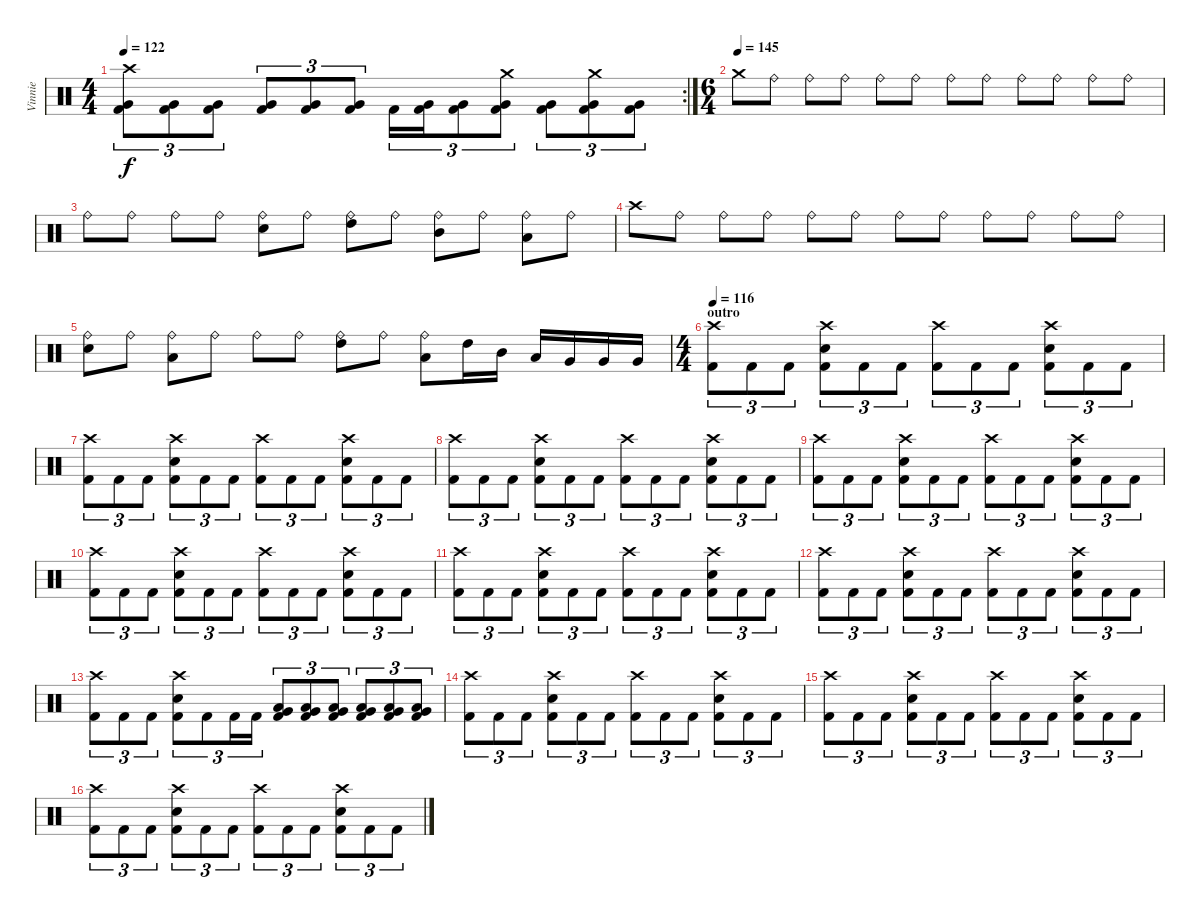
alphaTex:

\track ("Vinnie" "Vinnie") {instrument percussion}
\staff {score}
\articulation defaults
\rc 2
\ts (4 4)
\tempo 122
\clef neutral
\ks c
("Crash high (hit)" "Very Low Tom (hit)" "Kick (hit) 2").8{tu (3 2) dy f} ("Very Low Tom (hit)" "Kick (hit) 2").8{tu (3 2)} ("Very Low Tom (hit)" "Kick (hit) 2").8{tu (3 2)} ("Very Low Tom (hit)" "Kick (hit) 2").8{tu (3 2)} ("Very Low Tom (hit)" "Kick (hit) 2").8{tu (3 2)} ("Very Low Tom (hit)" "Kick (hit) 2").8{tu (3 2)} "Kick (hit) 2".16{tu (3 2)} ("Very Low Tom (hit)" "Kick (hit) 2").16{tu (3 2)} ("Very Low Tom (hit)" "Kick (hit) 2").8{tu (3 2)} ("Crash medium (hit)" "Very Low Tom (hit)" "Kick (hit) 2").8{tu (3 2)} ("Very Low Tom (hit)" "Kick (hit) 2").8{tu (3 2)} ("Crash medium (hit)" "Very Low Tom (hit)" "Kick (hit) 2").8{tu (3 2)} ("Very Low Tom (hit)" "Kick (hit) 2").8{tu (3 2)} |
\ts (6 4)
\tempo (145)
"Crash medium (hit)".8 "Ride (bell)".8 "Ride (bell)".8 "Ride (bell)".8 "Ride (bell)".8 "Ride (bell)".8 "Ride (bell)".8 "Ride (bell)".8 "Ride (bell)".8 "Ride (bell)".8 "Ride (bell)".8 "Ride (bell)".8 |
"Ride (bell)".8 "Ride (bell)".8 "Ride (bell)".8 "Ride (bell)".8 ("Ride (bell)" "Snare (hit) 2").8 "Ride (bell)".8 ("Ride (bell)" "High Tom (hit)").8 "Ride (bell)".8 ("Ride (bell)" "Mid Tom (hit)").8 "Ride (bell)".8 ("Ride (bell)" "Low Tom (hit)").8 "Ride (bell)".8 |
"Crash high (hit)".8 "Ride (bell)".8 "Ride (bell)".8 "Ride (bell)".8 "Ride (bell)".8 "Ride (bell)".8 "Ride (bell)".8 "Ride (bell)".8 "Ride (bell)".8 "Ride (bell)".8 "Ride (bell)".8 "Ride (bell)".8 |
("Ride (bell)" "Snare (hit) 2").8 "Ride (bell)".8 ("Ride (bell)" "Low Tom (hit)").8 "Ride (bell)".8 "Ride (bell)".8 "Ride (bell)".8 ("Ride (bell)" "High Tom (hit)").8 "Ride (bell)".8 ("Ride (bell)" "Low Tom (hit)").8 "High Tom (hit)".16 "Mid Tom (hit)".16 "Low Tom (hit)".16 "Very Low Tom (hit)".16 "Very Low Tom (hit)".16 "Very Low Tom (hit)".16 |
\ts (4 4)
\section ("" "outro")
\tempo 116
("Crash high (hit)" "Kick (hit) 2").8{tu (3 2)} "Kick (hit) 2".8{tu (3 2)} "Kick (hit) 2".8{tu (3 2)} ("Crash high (hit)" "Snare (hit) 2" "Kick (hit) 2").8{tu (3 2)} "Kick (hit) 2".8{tu (3 2)} "Kick (hit) 2".8{tu (3 2)} ("Crash high (hit)" "Kick (hit) 2").8{tu (3 2)} "Kick (hit) 2".8{tu (3 2)} "Kick (hit) 2".8{tu (3 2)} ("Crash high (hit)" "Snare (hit) 2" "Kick (hit) 2").8{tu (3 2)} "Kick (hit) 2".8{tu (3 2)} "Kick (hit) 2".8{tu (3 2)} |
("Crash high (hit)" "Kick (hit) 2").8{tu (3 2)} "Kick (hit) 2".8{tu (3 2)} "Kick (hit) 2".8{tu (3 2)} ("Crash high (hit)" "Snare (hit) 2" "Kick (hit) 2").8{tu (3 2)} "Kick (hit) 2".8{tu (3 2)} "Kick (hit) 2".8{tu (3 2)} ("Crash high (hit)" "Kick (hit) 2").8{tu (3 2)} "Kick (hit) 2".8{tu (3 2)} "Kick (hit) 2".8{tu (3 2)} ("Crash high (hit)" "Snare (hit) 2" "Kick (hit) 2").8{tu (3 2)} "Kick (hit) 2".8{tu (3 2)} "Kick (hit) 2".8{tu (3 2)} |
("Crash high (hit)" "Kick (hit) 2").8{tu (3 2)} "Kick (hit) 2".8{tu (3 2)} "Kick (hit) 2".8{tu (3 2)} ("Crash high (hit)" "Snare (hit) 2" "Kick (hit) 2").8{tu (3 2)} "Kick (hit) 2".8{tu (3 2)} "Kick (hit) 2".8{tu (3 2)} ("Crash high (hit)" "Kick (hit) 2").8{tu (3 2)} "Kick (hit) 2".8{tu (3 2)} "Kick (hit) 2".8{tu (3 2)} ("Crash high (hit)" "Snare (hit) 2" "Kick (hit) 2").8{tu (3 2)} "Kick (hit) 2".8{tu (3 2)} "Kick (hit) 2".8{tu (3 2)} |
("Crash high (hit)" "Kick (hit) 2").8{tu (3 2)} "Kick (hit) 2".8{tu (3 2)} "Kick (hit) 2".8{tu (3 2)} ("Crash high (hit)" "Snare (hit) 2" "Kick (hit) 2").8{tu (3 2)} "Kick (hit) 2".8{tu (3 2)} "Kick (hit) 2".8{tu (3 2)} ("Crash high (hit)" "Kick (hit) 2").8{tu (3 2)} "Kick (hit) 2".8{tu (3 2)} "Kick (hit) 2".8{tu (3 2)} ("Crash high (hit)" "Snare (hit) 2" "Kick (hit) 2").8{tu (3 2)} "Kick (hit) 2".8{tu (3 2)} "Kick (hit) 2".8{tu (3 2)} |
("Crash high (hit)" "Kick (hit) 2").8{tu (3 2)} "Kick (hit) 2".8{tu (3 2)} "Kick (hit) 2".8{tu (3 2)} ("Crash high (hit)" "Snare (hit) 2" "Kick (hit) 2").8{tu (3 2)} "Kick (hit) 2".8{tu (3 2)} "Kick (hit) 2".8{tu (3 2)} ("Crash high (hit)" "Kick (hit) 2").8{tu (3 2)} "Kick (hit) 2".8{tu (3 2)} "Kick (hit) 2".8{tu (3 2)} ("Crash high (hit)" "Snare (hit) 2" "Kick (hit) 2").8{tu (3 2)} "Kick (hit) 2".8{tu (3 2)} "Kick (hit) 2".8{tu (3 2)} |
("Crash high (hit)" "Kick (hit) 2").8{tu (3 2)} "Kick (hit) 2".8{tu (3 2)} "Kick (hit) 2".8{tu (3 2)} ("Crash high (hit)" "Snare (hit) 2" "Kick (hit) 2").8{tu (3 2)} "Kick (hit) 2".8{tu (3 2)} "Kick (hit) 2".8{tu (3 2)} ("Crash high (hit)" "Kick (hit) 2").8{tu (3 2)} "Kick (hit) 2".8{tu (3 2)} "Kick (hit) 2".8{tu (3 2)} ("Crash high (hit)" "Snare (hit) 2" "Kick (hit) 2").8{tu (3 2)} "Kick (hit) 2".8{tu (3 2)} "Kick (hit) 2".8{tu (3 2)} |
("Crash high (hit)" "Kick (hit) 2").8{tu (3 2)} "Kick (hit) 2".8{tu (3 2)} "Kick (hit) 2".8{tu (3 2)} ("Crash high (hit)" "Snare (hit) 2" "Kick (hit) 2").8{tu (3 2)} "Kick (hit) 2".8{tu (3 2)} "Kick (hit) 2".8{tu (3 2)} ("Crash high (hit)" "Kick (hit) 2").8{tu (3 2)} "Kick (hit) 2".8{tu (3 2)} "Kick (hit) 2".8{tu (3 2)} ("Crash high (hit)" "Snare (hit) 2" "Kick (hit) 2").8{tu (3 2)} "Kick (hit) 2".8{tu (3 2)} "Kick (hit) 2".8{tu (3 2)} |
("Crash high (hit)" "Kick (hit) 2").8{tu (3 2)} "Kick (hit) 2".8{tu (3 2)} "Kick (hit) 2".8{tu (3 2)} ("Crash high (hit)" "Snare (hit) 2" "Kick (hit) 2").8{tu (3 2)} "Kick (hit) 2".8{tu (3 2)} "Kick (hit) 2".16{tu (3 2)} "Kick (hit) 2".16{tu (3 2)} ("Low Floor Tom (hit)" "Very Low Tom (hit)" "Kick (hit) 2").8{tu (3 2)} ("Low Floor Tom (hit)" "Very Low Tom (hit)" "Kick (hit) 2").8{tu (3 2)} ("Low Floor Tom (hit)" "Very Low Tom (hit)" "Kick (hit) 2").8{tu (3 2)} ("Low Floor Tom (hit)" "Very Low Tom (hit)" "Kick (hit) 2").8{tu (3 2)} ("Low Floor Tom (hit)" "Very Low Tom (hit)" "Kick (hit) 2").8{tu (3 2)} ("Low Floor Tom (hit)" "Very Low Tom (hit)" "Kick (hit) 2").8{tu (3 2)} |
("Crash high (hit)" "Kick (hit) 2").8{tu (3 2)} "Kick (hit) 2".8{tu (3 2)} "Kick (hit) 2".8{tu (3 2)} ("Crash high (hit)" "Snare (hit) 2" "Kick (hit) 2").8{tu (3 2)} "Kick (hit) 2".8{tu (3 2)} "Kick (hit) 2".8{tu (3 2)} ("Crash high (hit)" "Kick (hit) 2").8{tu (3 2)} "Kick (hit) 2".8{tu (3 2)} "Kick (hit) 2".8{tu (3 2)} ("Crash high (hit)" "Snare (hit) 2" "Kick (hit) 2").8{tu (3 2)} "Kick (hit) 2".8{tu (3 2)} "Kick (hit) 2".8{tu (3 2)} |
("Crash high (hit)" "Kick (hit) 2").8{tu (3 2)} "Kick (hit) 2".8{tu (3 2)} "Kick (hit) 2".8{tu (3 2)} ("Crash high (hit)" "Snare (hit) 2" "Kick (hit) 2").8{tu (3 2)} "Kick (hit) 2".8{tu (3 2)} "Kick (hit) 2".8{tu (3 2)} ("Crash high (hit)" "Kick (hit) 2").8{tu (3 2)} "Kick (hit) 2".8{tu (3 2)} "Kick (hit) 2".8{tu (3 2)} ("Crash high (hit)" "Snare (hit) 2" "Kick (hit) 2").8{tu (3 2)} "Kick (hit) 2".8{tu (3 2)} "Kick (hit) 2".8{tu (3 2)} |
("Crash high (hit)" "Kick (hit) 2").8{tu (3 2)} "Kick (hit) 2".8{tu (3 2)} "Kick (hit) 2".8{tu (3 2)} ("Crash high (hit)" "Snare (hit) 2" "Kick (hit) 2").8{tu (3 2)} "Kick (hit) 2".8{tu (3 2)} "Kick (hit) 2".8{tu (3 2)} ("Crash high (hit)" "Kick (hit) 2").8{tu (3 2)} "Kick (hit) 2".8{tu (3 2)} "Kick (hit) 2".8{tu (3 2)} ("Crash high (hit)" "Snare (hit) 2" "Kick (hit) 2").8{tu (3 2)} "Kick (hit) 2".8{tu (3 2)} "Kick (hit) 2".8{tu (3 2)}
